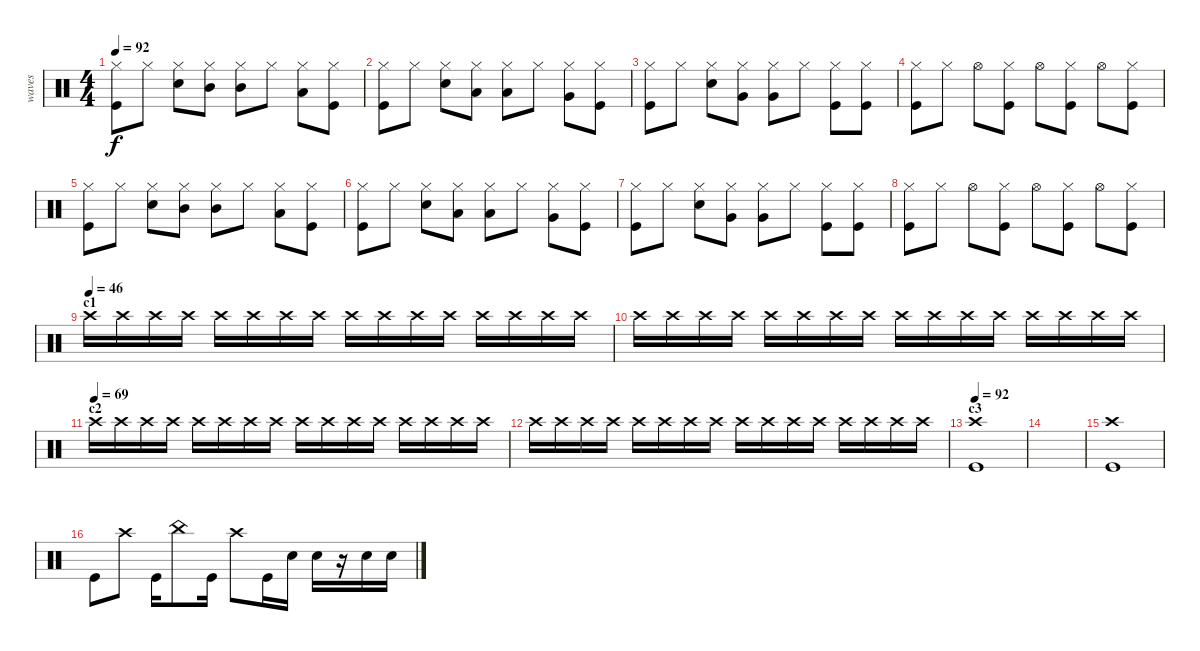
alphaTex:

\track ("waves" "waves") {instrument percussion}
\staff {score}
\articulation defaults
\ts (4 4)
\tempo 92
\clef neutral
\ks c
("Hi-Hat (closed)" "Kick (hit)").8{dy f volume 16} "Hi-Hat (closed)".8 ("Hi-Hat (closed)" "Electric Snare (hit)").8 ("Hi-Hat (closed)" "Mid Tom (hit)").8 ("Hi-Hat (closed)" "Mid Tom (hit)").8 "Hi-Hat (closed)".8 ("Hi-Hat (closed)" "Low Tom (hit)").8 ("Hi-Hat (closed)" "Kick (hit)").8 |
("Hi-Hat (closed)" "Kick (hit)").8 "Hi-Hat (closed)".8 ("Hi-Hat (closed)" "Electric Snare (hit)").8 ("Hi-Hat (closed)" "Low Tom (hit)").8 ("Hi-Hat (closed)" "Low Tom (hit)").8 "Hi-Hat (closed)".8 ("Hi-Hat (closed)" "Very Low Tom (hit)").8 ("Hi-Hat (closed)" "Kick (hit)").8 |
("Hi-Hat (closed)" "Kick (hit)").8 "Hi-Hat (closed)".8 ("Hi-Hat (closed)" "Electric Snare (hit)").8 ("Hi-Hat (closed)" "Very Low Tom (hit)").8 ("Hi-Hat (closed)" "Very Low Tom (hit)").8 "Hi-Hat (closed)".8 ("Hi-Hat (closed)" "Kick (hit)").8 ("Hi-Hat (closed)" "Kick (hit)").8 |
("Hi-Hat (closed)" "Kick (hit)").8 "Hi-Hat (closed)".8 "Hi-Hat (open)".8 ("Hi-Hat (closed)" "Kick (hit)").8 "Hi-Hat (open)".8 ("Hi-Hat (closed)" "Kick (hit)").8 "Hi-Hat (open)".8 ("Hi-Hat (closed)" "Kick (hit)").8 |
("Hi-Hat (closed)" "Kick (hit)").8 "Hi-Hat (closed)".8 ("Hi-Hat (closed)" "Electric Snare (hit)").8 ("Hi-Hat (closed)" "Mid Tom (hit)").8 ("Hi-Hat (closed)" "Mid Tom (hit)").8 "Hi-Hat (closed)".8 ("Hi-Hat (closed)" "Low Tom (hit)").8 ("Hi-Hat (closed)" "Kick (hit)").8 |
("Hi-Hat (closed)" "Kick (hit)").8 "Hi-Hat (closed)".8 ("Hi-Hat (closed)" "Electric Snare (hit)").8 ("Hi-Hat (closed)" "Low Tom (hit)").8 ("Hi-Hat (closed)" "Low Tom (hit)").8 "Hi-Hat (closed)".8 ("Hi-Hat (closed)" "Very Low Tom (hit)").8 ("Hi-Hat (closed)" "Kick (hit)").8 |
("Hi-Hat (closed)" "Kick (hit)").8 "Hi-Hat (closed)".8 ("Hi-Hat (closed)" "Electric Snare (hit)").8 ("Hi-Hat (closed)" "Very Low Tom (hit)").8 ("Hi-Hat (closed)" "Very Low Tom (hit)").8 "Hi-Hat (closed)".8 ("Hi-Hat (closed)" "Kick (hit)").8 ("Hi-Hat (closed)" "Kick (hit)").8 |
("Hi-Hat (closed)" "Kick (hit)").8 "Hi-Hat (closed)".8 "Hi-Hat (open)".8 ("Hi-Hat (closed)" "Kick (hit)").8 "Hi-Hat (open)".8 ("Hi-Hat (closed)" "Kick (hit)").8 "Hi-Hat (open)".8 ("Hi-Hat (closed)" "Kick (hit)").8 |
\section ("" "c1")
\tempo (46)
"Crash high (hit)".16{volume 0} "Crash high (hit)".16{volume 8} "Crash high (hit)".16 "Crash high (hit)".16 "Crash high (hit)".16 "Crash high (hit)".16 "Crash high (hit)".16 "Crash high (hit)".16 "Crash high (hit)".16 "Crash high (hit)".16 "Crash high (hit)".16 "Crash high (hit)".16 "Crash high (hit)".16 "Crash high (hit)".16 "Crash high (hit)".16 "Crash high (hit)".16{volume 1} |
"Crash high (hit)".16 "Crash high (hit)".16 "Crash high (hit)".16 "Crash high (hit)".16 "Crash high (hit)".16 "Crash high (hit)".16 "Crash high (hit)".16 "Crash high (hit)".16 "Crash high (hit)".16 "Crash high (hit)".16 "Crash high (hit)".16 "Crash high (hit)".16 "Crash high (hit)".16{volume 7} "Crash high (hit)".16 "Crash high (hit)".16 "Crash high (hit)".16 |
\section ("" "c2")
\tempo (69)
"Crash high (hit)".16 "Crash high (hit)".16 "Crash high (hit)".16 "Crash high (hit)".16 "Crash high (hit)".16 "Crash high (hit)".16 "Crash high (hit)".16 "Crash high (hit)".16 "Crash high (hit)".16{volume 3} "Crash high (hit)".16 "Crash high (hit)".16 "Crash high (hit)".16 "Crash high (hit)".16 "Crash high (hit)".16 "Crash high (hit)".16 "Crash high (hit)".16 |
"Crash high (hit)".16 "Crash high (hit)".16 "Crash high (hit)".16 "Crash high (hit)".16 "Crash high (hit)".16{volume 16} "Crash high (hit)".16 "Crash high (hit)".16 "Crash high (hit)".16 "Crash high (hit)".16 "Crash high (hit)".16 "Crash high (hit)".16 "Crash high (hit)".16 "Crash high (hit)".16 "Crash high (hit)".16 "Crash high (hit)".16 "Crash high (hit)".16 |
\section ("" "c3")
\tempo 92
("Crash high (hit)" "Kick (hit)").1 |
|
("Crash high (hit)" "Kick (hit)").1 |
"Kick (hit)".8 "Crash high (hit)".8 "Kick (hit)".16 "China (hit)".8 "Kick (hit)".16 "Crash high (hit)".8 "Kick (hit)".16 "Electric Snare (hit)".16 "Electric Snare (hit)".16 r.16 "Electric Snare (hit)".16 "Electric Snare (hit)".16
